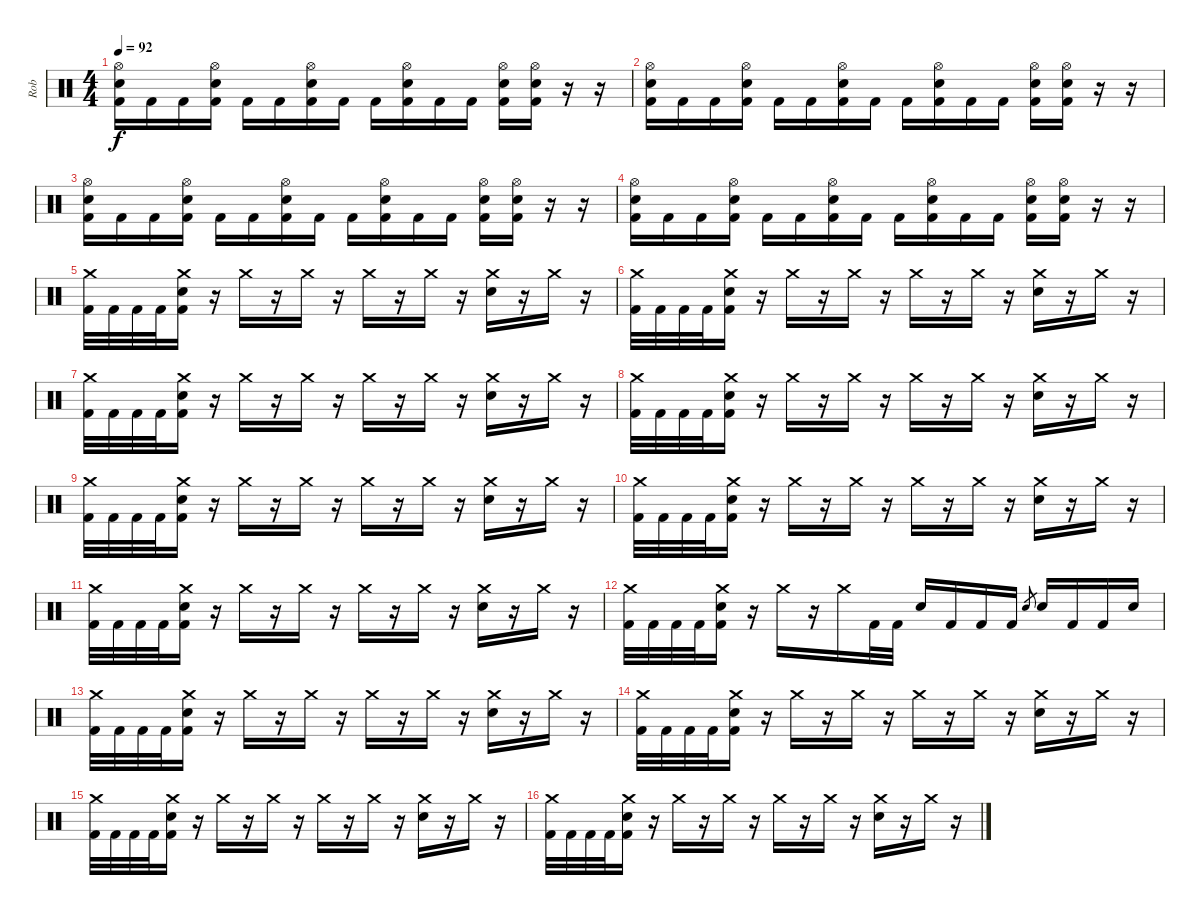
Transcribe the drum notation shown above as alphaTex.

\track ("Rob" "Rob") {instrument percussion}
\staff {score}
\articulation defaults
\ts (4 4)
\tempo 92
\clef neutral
\ks c
("Hi-Hat (open)" "Electric Snare (hit)" "Kick (hit) 2").16{dy f} "Kick (hit) 2".16 "Kick (hit) 2".16 ("Hi-Hat (open)" "Electric Snare (hit)" "Kick (hit) 2").16 "Kick (hit) 2".16 "Kick (hit) 2".16 ("Hi-Hat (open)" "Electric Snare (hit)" "Kick (hit) 2").16 "Kick (hit) 2".16 "Kick (hit) 2".16 ("Hi-Hat (open)" "Electric Snare (hit)" "Kick (hit) 2").16 "Kick (hit) 2".16 "Kick (hit) 2".16 ("Hi-Hat (open)" "Electric Snare (hit)" "Kick (hit) 2").16 ("Hi-Hat (open)" "Electric Snare (hit)" "Kick (hit) 2").16 r.16 r.16 |
("Hi-Hat (open)" "Electric Snare (hit)" "Kick (hit) 2").16 "Kick (hit) 2".16 "Kick (hit) 2".16 ("Hi-Hat (open)" "Electric Snare (hit)" "Kick (hit) 2").16 "Kick (hit) 2".16 "Kick (hit) 2".16 ("Hi-Hat (open)" "Electric Snare (hit)" "Kick (hit) 2").16 "Kick (hit) 2".16 "Kick (hit) 2".16 ("Hi-Hat (open)" "Electric Snare (hit)" "Kick (hit) 2").16 "Kick (hit) 2".16 "Kick (hit) 2".16 ("Hi-Hat (open)" "Electric Snare (hit)" "Kick (hit) 2").16 ("Hi-Hat (open)" "Electric Snare (hit)" "Kick (hit) 2").16 r.16 r.16 |
("Hi-Hat (open)" "Electric Snare (hit)" "Kick (hit) 2").16 "Kick (hit) 2".16 "Kick (hit) 2".16 ("Hi-Hat (open)" "Electric Snare (hit)" "Kick (hit) 2").16 "Kick (hit) 2".16 "Kick (hit) 2".16 ("Hi-Hat (open)" "Electric Snare (hit)" "Kick (hit) 2").16 "Kick (hit) 2".16 "Kick (hit) 2".16 ("Hi-Hat (open)" "Electric Snare (hit)" "Kick (hit) 2").16 "Kick (hit) 2".16 "Kick (hit) 2".16 ("Hi-Hat (open)" "Electric Snare (hit)" "Kick (hit) 2").16 ("Hi-Hat (open)" "Electric Snare (hit)" "Kick (hit) 2").16 r.16 r.16 |
("Hi-Hat (open)" "Electric Snare (hit)" "Kick (hit) 2").16 "Kick (hit) 2".16 "Kick (hit) 2".16 ("Hi-Hat (open)" "Electric Snare (hit)" "Kick (hit) 2").16 "Kick (hit) 2".16 "Kick (hit) 2".16 ("Hi-Hat (open)" "Electric Snare (hit)" "Kick (hit) 2").16 "Kick (hit) 2".16 "Kick (hit) 2".16 ("Hi-Hat (open)" "Electric Snare (hit)" "Kick (hit) 2").16 "Kick (hit) 2".16 "Kick (hit) 2".16 ("Hi-Hat (open)" "Electric Snare (hit)" "Kick (hit) 2").16 ("Hi-Hat (open)" "Electric Snare (hit)" "Kick (hit) 2").16 r.16 r.16 |
("Crash medium (hit)" "Kick (hit) 2").32 "Kick (hit) 2".32 "Kick (hit) 2".32 "Kick (hit) 2".32 ("Crash medium (hit)" "Electric Snare (hit)" "Kick (hit) 2").16 r.16 "Crash medium (hit)".16 r.16 "Crash medium (hit)".16 r.16 "Crash medium (hit)".16 r.16 "Crash medium (hit)".16 r.16 ("Crash medium (hit)" "Electric Snare (hit)").16 r.16 "Crash medium (hit)".16 r.16 |
("Crash medium (hit)" "Kick (hit) 2").32 "Kick (hit) 2".32 "Kick (hit) 2".32 "Kick (hit) 2".32 ("Crash medium (hit)" "Electric Snare (hit)" "Kick (hit) 2").16 r.16 "Crash medium (hit)".16 r.16 "Crash medium (hit)".16 r.16 "Crash medium (hit)".16 r.16 "Crash medium (hit)".16 r.16 ("Crash medium (hit)" "Electric Snare (hit)").16 r.16 "Crash medium (hit)".16 r.16 |
("Crash medium (hit)" "Kick (hit) 2").32 "Kick (hit) 2".32 "Kick (hit) 2".32 "Kick (hit) 2".32 ("Crash medium (hit)" "Electric Snare (hit)" "Kick (hit) 2").16 r.16 "Crash medium (hit)".16 r.16 "Crash medium (hit)".16 r.16 "Crash medium (hit)".16 r.16 "Crash medium (hit)".16 r.16 ("Crash medium (hit)" "Electric Snare (hit)").16 r.16 "Crash medium (hit)".16 r.16 |
("Crash medium (hit)" "Kick (hit) 2").32 "Kick (hit) 2".32 "Kick (hit) 2".32 "Kick (hit) 2".32 ("Crash medium (hit)" "Electric Snare (hit)" "Kick (hit) 2").16 r.16 "Crash medium (hit)".16 r.16 "Crash medium (hit)".16 r.16 "Crash medium (hit)".16 r.16 "Crash medium (hit)".16 r.16 ("Crash medium (hit)" "Electric Snare (hit)").16 r.16 "Crash medium (hit)".16 r.16 |
("Crash medium (hit)" "Kick (hit) 2").32 "Kick (hit) 2".32 "Kick (hit) 2".32 "Kick (hit) 2".32 ("Crash medium (hit)" "Electric Snare (hit)" "Kick (hit) 2").16 r.16 "Crash medium (hit)".16 r.16 "Crash medium (hit)".16 r.16 "Crash medium (hit)".16 r.16 "Crash medium (hit)".16 r.16 ("Crash medium (hit)" "Electric Snare (hit)").16 r.16 "Crash medium (hit)".16 r.16 |
("Crash medium (hit)" "Kick (hit) 2").32 "Kick (hit) 2".32 "Kick (hit) 2".32 "Kick (hit) 2".32 ("Crash medium (hit)" "Electric Snare (hit)" "Kick (hit) 2").16 r.16 "Crash medium (hit)".16 r.16 "Crash medium (hit)".16 r.16 "Crash medium (hit)".16 r.16 "Crash medium (hit)".16 r.16 ("Crash medium (hit)" "Electric Snare (hit)").16 r.16 "Crash medium (hit)".16 r.16 |
("Crash medium (hit)" "Kick (hit) 2").32 "Kick (hit) 2".32 "Kick (hit) 2".32 "Kick (hit) 2".32 ("Crash medium (hit)" "Electric Snare (hit)" "Kick (hit) 2").16 r.16 "Crash medium (hit)".16 r.16 "Crash medium (hit)".16 r.16 "Crash medium (hit)".16 r.16 "Crash medium (hit)".16 r.16 ("Crash medium (hit)" "Electric Snare (hit)").16 r.16 "Crash medium (hit)".16 r.16 |
("Crash medium (hit)" "Kick (hit) 2").32 "Kick (hit) 2".32 "Kick (hit) 2".32 "Kick (hit) 2".32 ("Crash medium (hit)" "Electric Snare (hit)" "Kick (hit) 2").16 r.16 "Crash medium (hit)".16 r.16 "Crash medium (hit)".16 "Kick (hit) 2".32 "Kick (hit) 2".32 "Electric Snare (hit)".16 "Kick (hit) 2".16 "Kick (hit) 2".16 "Kick (hit) 2".16 "Electric Snare (hit)".8{gr} "Electric Snare (hit)".16 "Kick (hit) 2".16 "Kick (hit) 2".16 "Electric Snare (hit)".16 |
("Crash medium (hit)" "Kick (hit) 2").32 "Kick (hit) 2".32 "Kick (hit) 2".32 "Kick (hit) 2".32 ("Crash medium (hit)" "Electric Snare (hit)" "Kick (hit) 2").16 r.16 "Crash medium (hit)".16 r.16 "Crash medium (hit)".16 r.16 "Crash medium (hit)".16 r.16 "Crash medium (hit)".16 r.16 ("Crash medium (hit)" "Electric Snare (hit)").16 r.16 "Crash medium (hit)".16 r.16 |
("Crash medium (hit)" "Kick (hit) 2").32 "Kick (hit) 2".32 "Kick (hit) 2".32 "Kick (hit) 2".32 ("Crash medium (hit)" "Electric Snare (hit)" "Kick (hit) 2").16 r.16 "Crash medium (hit)".16 r.16 "Crash medium (hit)".16 r.16 "Crash medium (hit)".16 r.16 "Crash medium (hit)".16 r.16 ("Crash medium (hit)" "Electric Snare (hit)").16 r.16 "Crash medium (hit)".16 r.16 |
("Crash medium (hit)" "Kick (hit) 2").32 "Kick (hit) 2".32 "Kick (hit) 2".32 "Kick (hit) 2".32 ("Crash medium (hit)" "Electric Snare (hit)" "Kick (hit) 2").16 r.16 "Crash medium (hit)".16 r.16 "Crash medium (hit)".16 r.16 "Crash medium (hit)".16 r.16 "Crash medium (hit)".16 r.16 ("Crash medium (hit)" "Electric Snare (hit)").16 r.16 "Crash medium (hit)".16 r.16 |
("Crash medium (hit)" "Kick (hit) 2").32 "Kick (hit) 2".32 "Kick (hit) 2".32 "Kick (hit) 2".32 ("Crash medium (hit)" "Electric Snare (hit)" "Kick (hit) 2").16 r.16 "Crash medium (hit)".16 r.16 "Crash medium (hit)".16 r.16 "Crash medium (hit)".16 r.16 "Crash medium (hit)".16 r.16 ("Crash medium (hit)" "Electric Snare (hit)").16 r.16 "Crash medium (hit)".16 r.16
